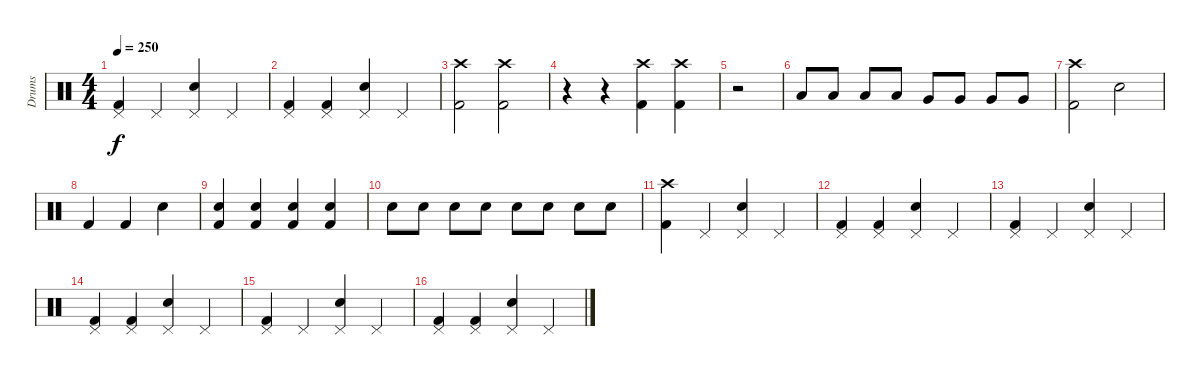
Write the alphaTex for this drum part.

\track ("Drums" "Drums") {instrument percussion}
\staff {score}
\articulation defaults
\ts (4 4)
\tempo 250
\clef neutral
\ks c
("Pedal Hi-Hat (hit)" "Kick (hit) 2").4{dy f} "Pedal Hi-Hat (hit)".4 ("Pedal Hi-Hat (hit)" "Electric Snare (hit)").4 "Pedal Hi-Hat (hit)".4 |
("Pedal Hi-Hat (hit)" "Kick (hit) 2").4 ("Pedal Hi-Hat (hit)" "Kick (hit) 2").4 ("Pedal Hi-Hat (hit)" "Electric Snare (hit)").4 "Pedal Hi-Hat (hit)".4 |
("Kick (hit) 2" "Crash high (hit)").2 ("Kick (hit) 2" "Crash high (hit)").2 |
r.4 r.4 ("Kick (hit) 2" "Crash high (hit)").4 ("Kick (hit) 2" "Crash high (hit)").4 |
r.2 |
"Low Tom (hit)".8 "Low Tom (hit)".8 "Low Tom (hit)".8 "Low Tom (hit)".8 "Very Low Tom (hit)".8 "Very Low Tom (hit)".8 "Very Low Tom (hit)".8 "Very Low Tom (hit)".8 |
("Kick (hit) 2" "Crash high (hit)").2 "Electric Snare (hit)".2 |
"Kick (hit) 2".4 "Kick (hit) 2".4 "Electric Snare (hit)".4 |
("Kick (hit) 2" "Electric Snare (hit)").4 ("Kick (hit) 2" "Electric Snare (hit)").4 ("Kick (hit) 2" "Electric Snare (hit)").4 ("Kick (hit) 2" "Electric Snare (hit)").4 |
"Electric Snare (hit)".8 "Electric Snare (hit)".8 "Electric Snare (hit)".8 "Electric Snare (hit)".8 "Electric Snare (hit)".8 "Electric Snare (hit)".8 "Electric Snare (hit)".8 "Electric Snare (hit)".8 |
("Kick (hit) 2" "Crash high (hit)").4 "Pedal Hi-Hat (hit)".4 ("Pedal Hi-Hat (hit)" "Electric Snare (hit)").4 "Pedal Hi-Hat (hit)".4 |
("Pedal Hi-Hat (hit)" "Kick (hit) 2").4 ("Pedal Hi-Hat (hit)" "Kick (hit) 2").4 ("Pedal Hi-Hat (hit)" "Electric Snare (hit)").4 "Pedal Hi-Hat (hit)".4 |
("Pedal Hi-Hat (hit)" "Kick (hit) 2").4 "Pedal Hi-Hat (hit)".4 ("Pedal Hi-Hat (hit)" "Electric Snare (hit)").4 "Pedal Hi-Hat (hit)".4 |
("Pedal Hi-Hat (hit)" "Kick (hit) 2").4 ("Pedal Hi-Hat (hit)" "Kick (hit) 2").4 ("Pedal Hi-Hat (hit)" "Electric Snare (hit)").4 "Pedal Hi-Hat (hit)".4 |
("Pedal Hi-Hat (hit)" "Kick (hit) 2").4 "Pedal Hi-Hat (hit)".4 ("Pedal Hi-Hat (hit)" "Electric Snare (hit)").4 "Pedal Hi-Hat (hit)".4 |
("Pedal Hi-Hat (hit)" "Kick (hit) 2").4 ("Pedal Hi-Hat (hit)" "Kick (hit) 2").4 ("Pedal Hi-Hat (hit)" "Electric Snare (hit)").4 "Pedal Hi-Hat (hit)".4
